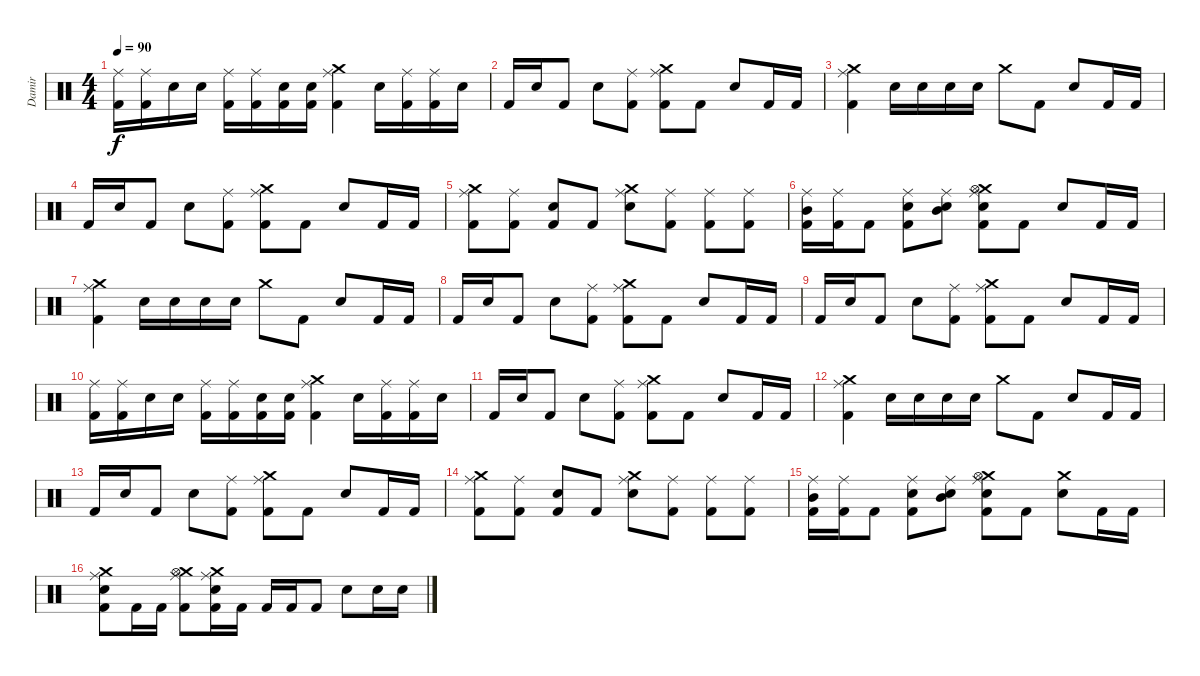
\track ("Damir" "Damir") {instrument percussion}
\staff {score}
\articulation defaults
\ts (4 4)
\tempo 90
\clef neutral
\ks c
("Kick (hit) 2" "Ride (middle)").16{dy f} ("Ride (middle)" "Kick (hit) 2").16 "Snare (hit) 2".16 "Snare (hit) 2".16 ("Kick (hit) 2" "Ride (middle)").16 ("Kick (hit) 2" "Ride (middle)").16 ("Snare (hit) 2" "Kick (hit) 2").16 ("Snare (hit) 2" "Kick (hit) 2").16 ("Kick (hit) 2" "Ride (middle)" "Crash medium (hit)").4 "Snare (hit) 2".16 ("Kick (hit) 2" "Ride (middle)").16 ("Kick (hit) 2" "Ride (middle)").16 "Snare (hit) 2".16 |
"Kick (hit) 2".16 "Snare (hit) 2".16 "Kick (hit) 2".8 "Snare (hit) 2".8 ("Kick (hit) 2" "Ride (middle)").8 ("Kick (hit) 2" "Ride (middle)" "Crash medium (hit)").8 "Kick (hit) 2".8 "Snare (hit) 2".8 "Kick (hit) 2".16 "Kick (hit) 2".16 |
("Kick (hit) 2" "Ride (middle)" "Crash medium (hit)").4 "Snare (hit) 2".16 "Snare (hit) 2".16 "Snare (hit) 2".16 "Snare (hit) 2".16 "Crash medium (hit)".8 "Kick (hit) 2".8 "Snare (hit) 2".8 "Kick (hit) 2".16 "Kick (hit) 2".16 |
"Kick (hit) 2".16 "Snare (hit) 2".16 "Kick (hit) 2".8 "Snare (hit) 2".8 ("Kick (hit) 2" "Ride (middle)").8 ("Kick (hit) 2" "Ride (middle)" "Crash medium (hit)").8 "Kick (hit) 2".8 "Snare (hit) 2".8 "Kick (hit) 2".16 "Kick (hit) 2".16 |
("Crash medium (hit)" "Kick (hit) 2" "Ride (middle)").8 ("Kick (hit) 2" "Ride (middle)").8 ("Kick (hit) 2" "Snare (hit) 2").8 "Kick (hit) 2".8 ("Crash medium (hit)" "Ride (middle)" "Snare (hit) 2").8 ("Kick (hit) 2" "Ride (middle)").8 ("Kick (hit) 2" "Ride (middle)").8 ("Kick (hit) 2" "Ride (middle)").8 |
("Mid Tom (hit)" "Kick (hit) 2" "Ride (middle)").16 ("Kick (hit) 2" "Ride (middle)").16 "Kick (hit) 2".8 ("Kick (hit) 2" "Ride (middle)" "Snare (hit) 2").8 ("Snare (hit) 2" "Ride (middle)" "Mid Tom (hit)").8 ("Crash medium (hit)" "Snare (hit) 2" "Ride (middle)" "Kick (hit) 2" "Hi-Hat (open)").8 "Kick (hit) 2".8 "Snare (hit) 2".8 "Kick (hit) 2".16 "Kick (hit) 2".16 |
("Kick (hit) 2" "Ride (middle)" "Crash medium (hit)").4 "Snare (hit) 2".16 "Snare (hit) 2".16 "Snare (hit) 2".16 "Snare (hit) 2".16 "Crash medium (hit)".8 "Kick (hit) 2".8 "Snare (hit) 2".8 "Kick (hit) 2".16 "Kick (hit) 2".16 |
"Kick (hit) 2".16 "Snare (hit) 2".16 "Kick (hit) 2".8 "Snare (hit) 2".8 ("Kick (hit) 2" "Ride (middle)").8 ("Kick (hit) 2" "Ride (middle)" "Crash medium (hit)").8 "Kick (hit) 2".8 "Snare (hit) 2".8 "Kick (hit) 2".16 "Kick (hit) 2".16 |
"Kick (hit) 2".16 "Snare (hit) 2".16 "Kick (hit) 2".8 "Snare (hit) 2".8 ("Kick (hit) 2" "Ride (middle)").8 ("Kick (hit) 2" "Ride (middle)" "Crash medium (hit)").8 "Kick (hit) 2".8 "Snare (hit) 2".8 "Kick (hit) 2".16 "Kick (hit) 2".16 |
("Kick (hit) 2" "Ride (middle)").16 ("Ride (middle)" "Kick (hit) 2").16 "Snare (hit) 2".16 "Snare (hit) 2".16 ("Kick (hit) 2" "Ride (middle)").16 ("Kick (hit) 2" "Ride (middle)").16 ("Snare (hit) 2" "Kick (hit) 2").16 ("Snare (hit) 2" "Kick (hit) 2").16 ("Kick (hit) 2" "Ride (middle)" "Crash medium (hit)").4 "Snare (hit) 2".16 ("Kick (hit) 2" "Ride (middle)").16 ("Kick (hit) 2" "Ride (middle)").16 "Snare (hit) 2".16 |
"Kick (hit) 2".16 "Snare (hit) 2".16 "Kick (hit) 2".8 "Snare (hit) 2".8 ("Kick (hit) 2" "Ride (middle)").8 ("Kick (hit) 2" "Ride (middle)" "Crash medium (hit)").8 "Kick (hit) 2".8 "Snare (hit) 2".8 "Kick (hit) 2".16 "Kick (hit) 2".16 |
("Kick (hit) 2" "Ride (middle)" "Crash medium (hit)").4 "Snare (hit) 2".16 "Snare (hit) 2".16 "Snare (hit) 2".16 "Snare (hit) 2".16 "Crash medium (hit)".8 "Kick (hit) 2".8 "Snare (hit) 2".8 "Kick (hit) 2".16 "Kick (hit) 2".16 |
"Kick (hit) 2".16 "Snare (hit) 2".16 "Kick (hit) 2".8 "Snare (hit) 2".8 ("Kick (hit) 2" "Ride (middle)").8 ("Kick (hit) 2" "Ride (middle)" "Crash medium (hit)").8 "Kick (hit) 2".8 "Snare (hit) 2".8 "Kick (hit) 2".16 "Kick (hit) 2".16 |
("Crash medium (hit)" "Kick (hit) 2" "Ride (middle)").8 ("Kick (hit) 2" "Ride (middle)").8 ("Kick (hit) 2" "Snare (hit) 2").8 "Kick (hit) 2".8 ("Crash medium (hit)" "Ride (middle)" "Snare (hit) 2").8 ("Kick (hit) 2" "Ride (middle)").8 ("Kick (hit) 2" "Ride (middle)").8 ("Kick (hit) 2" "Ride (middle)").8 |
("Mid Tom (hit)" "Kick (hit) 2" "Ride (middle)").16 ("Kick (hit) 2" "Ride (middle)").16 "Kick (hit) 2".8 ("Kick (hit) 2" "Ride (middle)" "Snare (hit) 2").8 ("Snare (hit) 2" "Ride (middle)" "Mid Tom (hit)").8 ("Crash medium (hit)" "Snare (hit) 2" "Ride (middle)" "Kick (hit) 2" "Hi-Hat (open)").8 "Kick (hit) 2".8 ("Snare (hit) 2" "Crash medium (hit)").8 "Kick (hit) 2".16 "Kick (hit) 2".16 |
("Snare (hit) 2" "Crash medium (hit)" "Kick (hit) 2" "Ride (middle)").8 "Kick (hit) 2".16 "Kick (hit) 2".16 ("Kick (hit) 2" "Crash medium (hit)" "Ride (middle)" "Hi-Hat (open)").8 ("Crash medium (hit)" "Kick (hit) 2" "Ride (middle)" "Snare (hit) 2").16 "Kick (hit) 2".16 "Kick (hit) 2".16 "Kick (hit) 2".16 "Kick (hit) 2".8 "Snare (hit) 2".8 "Snare (hit) 2".16 "Snare (hit) 2".16
